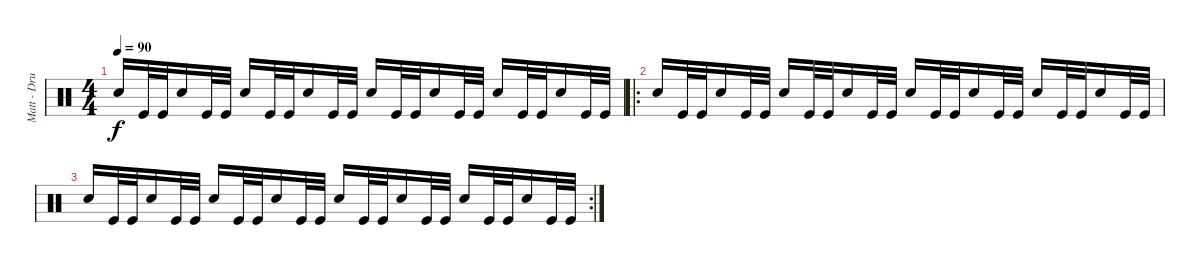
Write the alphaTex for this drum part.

\track ("Matt - Drums" "Matt - Dru") {instrument percussion}
\staff {score}
\articulation defaults
\ts (4 4)
\tempo 90
\clef neutral
\ks c "Snare (hit) 2".16{dy f} "Kick (hit)".32 "Kick (hit)".32 "Snare (hit) 2".16 "Kick (hit)".32 "Kick (hit)".32 "Snare (hit) 2".16 "Kick (hit)".32 "Kick (hit)".32 "Snare (hit) 2".16 "Kick (hit)".32 "Kick (hit)".32 "Snare (hit) 2".16 "Kick (hit)".32 "Kick (hit)".32 "Snare (hit) 2".16 "Kick (hit)".32 "Kick (hit)".32 "Snare (hit) 2".16 "Kick (hit)".32 "Kick (hit)".32 "Snare (hit) 2".16 "Kick (hit)".32 "Kick (hit)".32
|
\ro "Snare (hit) 2".16 "Kick (hit)".32 "Kick (hit)".32 "Snare (hit) 2".16 "Kick (hit)".32 "Kick (hit)".32 "Snare (hit) 2".16 "Kick (hit)".32 "Kick (hit)".32 "Snare (hit) 2".16 "Kick (hit)".32 "Kick (hit)".32 "Snare (hit) 2".16 "Kick (hit)".32 "Kick (hit)".32 "Snare (hit) 2".16 "Kick (hit)".32 "Kick (hit)".32 "Snare (hit) 2".16 "Kick (hit)".32 "Kick (hit)".32 "Snare (hit) 2".16 "Kick (hit)".32 "Kick (hit)".32
|
\rc 2 "Snare (hit) 2".16 "Kick (hit)".32 "Kick (hit)".32 "Snare (hit) 2".16 "Kick (hit)".32 "Kick (hit)".32 "Snare (hit) 2".16 "Kick (hit)".32 "Kick (hit)".32 "Snare (hit) 2".16 "Kick (hit)".32 "Kick (hit)".32 "Snare (hit) 2".16 "Kick (hit)".32 "Kick (hit)".32 "Snare (hit) 2".16 "Kick (hit)".32 "Kick (hit)".32 "Snare (hit) 2".16 "Kick (hit)".32 "Kick (hit)".32 "Snare (hit) 2".16 "Kick (hit)".32 "Kick (hit)".32
